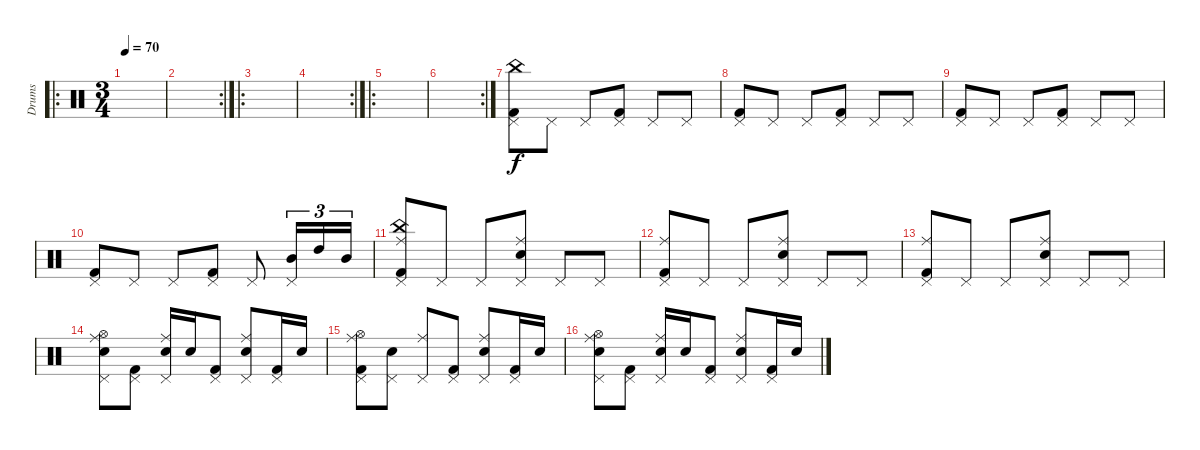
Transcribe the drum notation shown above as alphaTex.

\track ("Drums" "Drums") {instrument percussion}
\staff {score}
\articulation defaults
\ro
\ts (3 4)
\tempo 70
\clef neutral
\ks c
|
\rc 2
|
\ro
|
\rc 2
|
\ro
|
\rc 2
|
("Pedal Hi-Hat (hit)" "Kick (hit) 2" "China (hit)").8 "Pedal Hi-Hat (hit)".8 "Pedal Hi-Hat (hit)".8 ("Pedal Hi-Hat (hit)" "Kick (hit) 2").8 "Pedal Hi-Hat (hit)".8 "Pedal Hi-Hat (hit)".8 |
("Pedal Hi-Hat (hit)" "Kick (hit) 2").8 "Pedal Hi-Hat (hit)".8 "Pedal Hi-Hat (hit)".8 ("Pedal Hi-Hat (hit)" "Kick (hit) 2").8 "Pedal Hi-Hat (hit)".8 "Pedal Hi-Hat (hit)".8 |
("Pedal Hi-Hat (hit)" "Kick (hit) 2").8 "Pedal Hi-Hat (hit)".8 "Pedal Hi-Hat (hit)".8 ("Pedal Hi-Hat (hit)" "Kick (hit) 2").8 "Pedal Hi-Hat (hit)".8 "Pedal Hi-Hat (hit)".8 |
("Pedal Hi-Hat (hit)" "Kick (hit) 2").8 "Pedal Hi-Hat (hit)".8 "Pedal Hi-Hat (hit)".8 ("Pedal Hi-Hat (hit)" "Kick (hit) 2").8 "Pedal Hi-Hat (hit)".8 ("Pedal Hi-Hat (hit)" "Mid Tom (hit)").16{tu (3 2)} "High Tom (hit)".16{tu (3 2)} "Mid Tom (hit)".16{tu (3 2)} |
("Pedal Hi-Hat (hit)" "Kick (hit) 2" "China (hit)" "Ride (middle)").8 "Pedal Hi-Hat (hit)".8 "Pedal Hi-Hat (hit)".8 ("Pedal Hi-Hat (hit)" "Electric Snare (hit)" "Ride (middle)").8 "Pedal Hi-Hat (hit)".8 "Pedal Hi-Hat (hit)".8 |
("Pedal Hi-Hat (hit)" "Kick (hit) 2" "Ride (middle)").8 "Pedal Hi-Hat (hit)".8 "Pedal Hi-Hat (hit)".8 ("Pedal Hi-Hat (hit)" "Electric Snare (hit)" "Ride (middle)").8 "Pedal Hi-Hat (hit)".8 "Pedal Hi-Hat (hit)".8 |
("Pedal Hi-Hat (hit)" "Kick (hit) 2" "Ride (middle)").8 "Pedal Hi-Hat (hit)".8 "Pedal Hi-Hat (hit)".8 ("Pedal Hi-Hat (hit)" "Electric Snare (hit)" "Ride (middle)").8 "Pedal Hi-Hat (hit)".8 "Pedal Hi-Hat (hit)".8 |
("Pedal Hi-Hat (hit)" "Electric Snare (hit)" "Hi-Hat (open)" "Ride (middle)").8 ("Pedal Hi-Hat (hit)" "Kick (hit) 2").8 ("Pedal Hi-Hat (hit)" "Electric Snare (hit)" "Ride (middle)").16 "Electric Snare (hit)".16 ("Pedal Hi-Hat (hit)" "Kick (hit) 2").8 ("Pedal Hi-Hat (hit)" "Electric Snare (hit)" "Ride (middle)").8 ("Pedal Hi-Hat (hit)" "Kick (hit) 2").16 "Electric Snare (hit)".16 |
("Pedal Hi-Hat (hit)" "Kick (hit) 2" "Hi-Hat (open)" "Ride (middle)").8 ("Pedal Hi-Hat (hit)" "Electric Snare (hit)").8 ("Pedal Hi-Hat (hit)" "Ride (middle)").8 ("Pedal Hi-Hat (hit)" "Kick (hit) 2").8 ("Pedal Hi-Hat (hit)" "Electric Snare (hit)" "Ride (middle)").8 ("Pedal Hi-Hat (hit)" "Kick (hit) 2").16 "Electric Snare (hit)".16 |
("Pedal Hi-Hat (hit)" "Electric Snare (hit)" "Hi-Hat (open)" "Ride (middle)").8 ("Pedal Hi-Hat (hit)" "Kick (hit) 2").8 ("Pedal Hi-Hat (hit)" "Electric Snare (hit)" "Ride (middle)").16 "Electric Snare (hit)".16 ("Pedal Hi-Hat (hit)" "Kick (hit) 2").8 ("Pedal Hi-Hat (hit)" "Electric Snare (hit)" "Ride (middle)").8 ("Pedal Hi-Hat (hit)" "Kick (hit) 2").16 "Electric Snare (hit)".16
